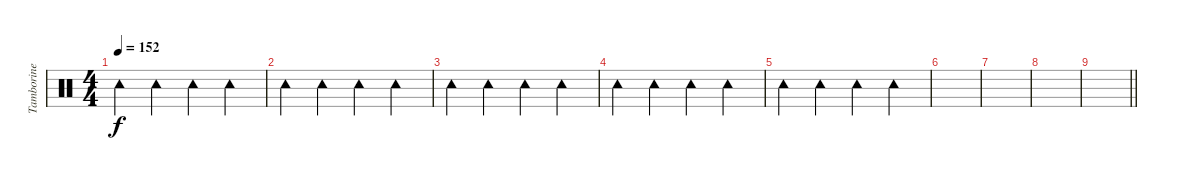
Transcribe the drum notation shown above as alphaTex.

\track ("Tamborine" "Tamborine") {instrument percussion}
\staff {score}
\articulation defaults
\ts (4 4)
\tempo 152
\clef neutral
\ks c "Tambourine (hit)".4{dy f} "Tambourine (hit)".4 "Tambourine (hit)".4 "Tambourine (hit)".4
|
"Tambourine (hit)".4 "Tambourine (hit)".4 "Tambourine (hit)".4 "Tambourine (hit)".4 |
"Tambourine (hit)".4 "Tambourine (hit)".4 "Tambourine (hit)".4 "Tambourine (hit)".4 |
"Tambourine (hit)".4 "Tambourine (hit)".4 "Tambourine (hit)".4 "Tambourine (hit)".4 |
"Tambourine (hit)".4 "Tambourine (hit)".4 "Tambourine (hit)".4 "Tambourine (hit)".4 |
|
|
|
\barLineRight lightlight
